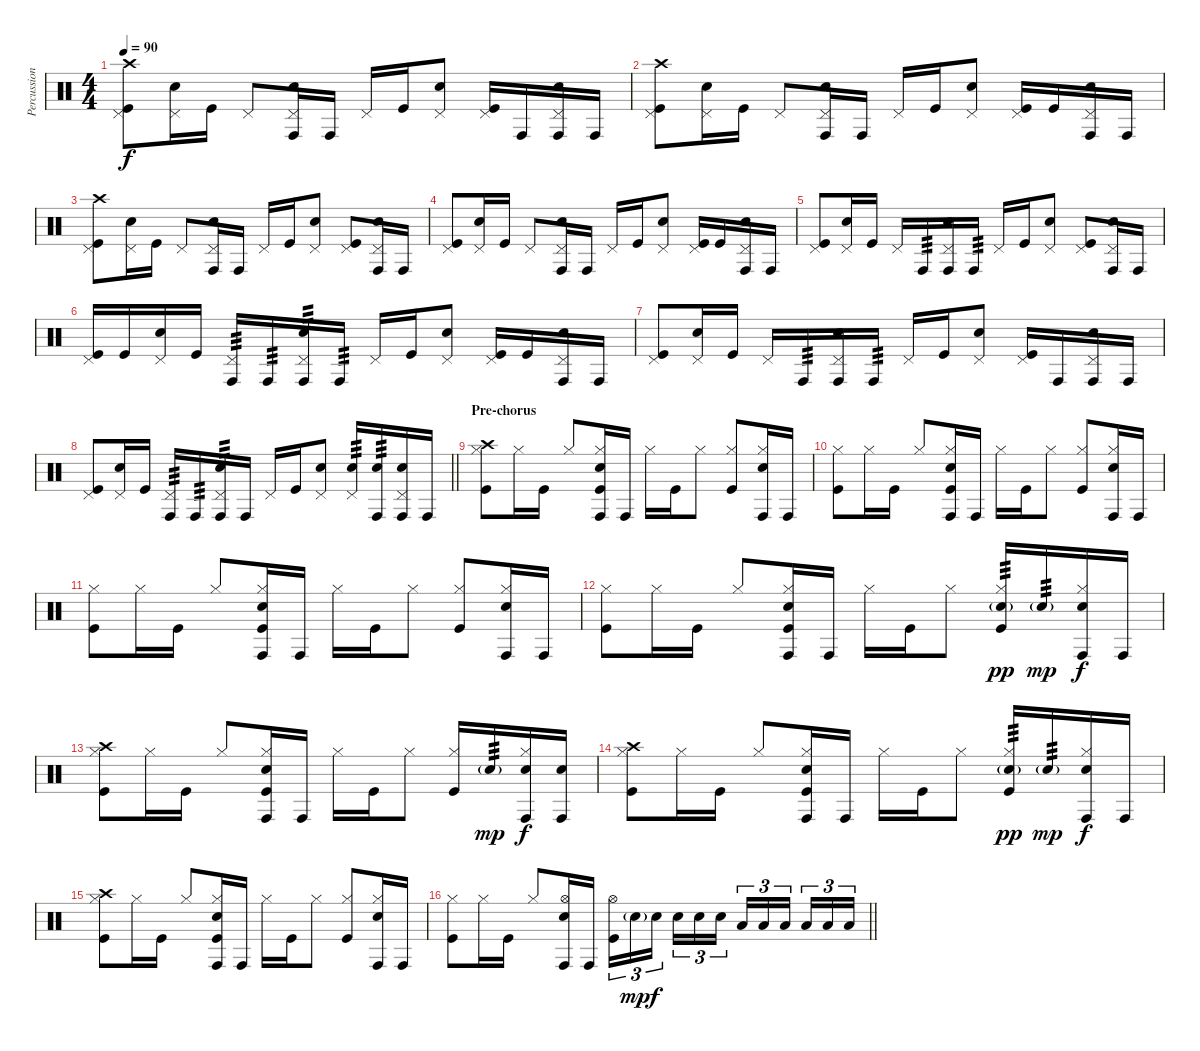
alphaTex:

\track ("Percussion" "Percussion") {instrument percussion}
\staff {score}
\articulation defaults
\ts (4 4)
\tempo 90
\clef neutral
\ks c
("Crash high (hit)" "Pedal Hi-Hat (hit)" "Kick (hit)").8{dy f} ("Pedal Hi-Hat (hit)" "Snare (hit) 2").16 "Kick (hit)".16 "Pedal Hi-Hat (hit)".8 ("Pedal Hi-Hat (hit)" "Snare (hit) 2" "Conga high (hit)").16 "Conga high (hit)".16 "Pedal Hi-Hat (hit)".16 "Kick (hit)".16 ("Pedal Hi-Hat (hit)" "Snare (hit) 2").8 ("Pedal Hi-Hat (hit)" "Kick (hit)").16 "Conga high (hit)".16 ("Pedal Hi-Hat (hit)" "Snare (hit) 2" "Conga high (hit)").16 "Conga high (hit)".16 |
("Crash high (hit)" "Pedal Hi-Hat (hit)" "Kick (hit)").8 ("Pedal Hi-Hat (hit)" "Snare (hit) 2").16 "Kick (hit)".16 "Pedal Hi-Hat (hit)".8 ("Pedal Hi-Hat (hit)" "Snare (hit) 2" "Conga high (hit)").16 "Conga high (hit)".16 "Pedal Hi-Hat (hit)".16 "Kick (hit)".16 ("Pedal Hi-Hat (hit)" "Snare (hit) 2").8 ("Pedal Hi-Hat (hit)" "Kick (hit)").16 "Kick (hit)".16 ("Pedal Hi-Hat (hit)" "Snare (hit) 2" "Conga high (hit)").16 "Conga high (hit)".16 |
("Crash high (hit)" "Pedal Hi-Hat (hit)" "Kick (hit)").8 ("Pedal Hi-Hat (hit)" "Snare (hit) 2").16 "Kick (hit)".16 "Pedal Hi-Hat (hit)".8 ("Pedal Hi-Hat (hit)" "Snare (hit) 2" "Conga high (hit)").16 "Conga high (hit)".16 "Pedal Hi-Hat (hit)".16 "Kick (hit)".16 ("Pedal Hi-Hat (hit)" "Snare (hit) 2").8 ("Pedal Hi-Hat (hit)" "Kick (hit)").8 ("Pedal Hi-Hat (hit)" "Snare (hit) 2" "Conga high (hit)").16 "Conga high (hit)".16 |
("Pedal Hi-Hat (hit)" "Kick (hit)").8 ("Pedal Hi-Hat (hit)" "Snare (hit) 2").16 "Kick (hit)".16 "Pedal Hi-Hat (hit)".8 ("Pedal Hi-Hat (hit)" "Snare (hit) 2" "Conga high (hit)").16 "Conga high (hit)".16 "Pedal Hi-Hat (hit)".16 "Kick (hit)".16 ("Pedal Hi-Hat (hit)" "Snare (hit) 2").8 ("Pedal Hi-Hat (hit)" "Kick (hit)").16 "Kick (hit)".16 ("Pedal Hi-Hat (hit)" "Snare (hit) 2" "Conga high (hit)").16 "Conga high (hit)".16 |
("Pedal Hi-Hat (hit)" "Kick (hit)").8 ("Pedal Hi-Hat (hit)" "Snare (hit) 2").16 "Kick (hit)".16 "Pedal Hi-Hat (hit)".16 "Conga high (hit)".16{tp 3} ("Pedal Hi-Hat (hit)" "Snare (hit) 2" "Conga high (hit)").16 "Conga high (hit)".16{tp 3} "Pedal Hi-Hat (hit)".16 "Kick (hit)".16 ("Pedal Hi-Hat (hit)" "Snare (hit) 2").8 ("Pedal Hi-Hat (hit)" "Kick (hit)").8 ("Pedal Hi-Hat (hit)" "Snare (hit) 2" "Conga high (hit)").16 "Conga high (hit)".16 |
("Pedal Hi-Hat (hit)" "Kick (hit)").16 "Kick (hit)".16 ("Pedal Hi-Hat (hit)" "Snare (hit) 2").16 "Kick (hit)".16 ("Pedal Hi-Hat (hit)" "Conga high (hit)").16{tp 3} "Conga high (hit)".16{tp 3} ("Pedal Hi-Hat (hit)" "Snare (hit) 2" "Conga high (hit)").16{tp 3} "Conga high (hit)".16{tp 3} "Pedal Hi-Hat (hit)".16 "Kick (hit)".16 ("Pedal Hi-Hat (hit)" "Snare (hit) 2").8 ("Pedal Hi-Hat (hit)" "Kick (hit)").16 "Kick (hit)".16 ("Pedal Hi-Hat (hit)" "Snare (hit) 2" "Conga high (hit)").16 "Conga high (hit)".16 |
("Pedal Hi-Hat (hit)" "Kick (hit)").8 ("Pedal Hi-Hat (hit)" "Snare (hit) 2").16 "Kick (hit)".16 "Pedal Hi-Hat (hit)".16 "Conga high (hit)".16{tp 3} ("Pedal Hi-Hat (hit)" "Snare (hit) 2" "Conga high (hit)").16 "Conga high (hit)".16{tp 3} "Pedal Hi-Hat (hit)".16 "Kick (hit)".16 ("Pedal Hi-Hat (hit)" "Snare (hit) 2").8 ("Pedal Hi-Hat (hit)" "Kick (hit)").16 "Conga high (hit)".16 ("Pedal Hi-Hat (hit)" "Snare (hit) 2" "Conga high (hit)").16 "Conga high (hit)".16 |
\barLineRight lightlight
("Pedal Hi-Hat (hit)" "Kick (hit)").8 ("Pedal Hi-Hat (hit)" "Snare (hit) 2").16 "Kick (hit)".16 ("Pedal Hi-Hat (hit)" "Conga high (hit)").16{tp 3} "Conga high (hit)".16{tp 3} ("Pedal Hi-Hat (hit)" "Snare (hit) 2" "Conga high (hit)").16{tp 3} "Conga high (hit)".16 "Pedal Hi-Hat (hit)".16 "Kick (hit)".16 ("Pedal Hi-Hat (hit)" "Snare (hit) 2").8 ("Pedal Hi-Hat (hit)" "Snare (hit) 2").16{tp 3} ("Snare (hit) 2" "Conga high (hit)").16{tp 3} ("Pedal Hi-Hat (hit)" "Snare (hit) 2" "Conga high (hit)").16 "Conga high (hit)".16 |
\section ("" "Pre-chorus")
("Crash high (hit)" "Hi-Hat (closed)" "Kick (hit)").8 "Hi-Hat (closed)".16 "Kick (hit)".16 "Hi-Hat (closed)".8 ("Hi-Hat (closed)" "Snare (hit) 2" "Conga high (hit)" "Kick (hit)").16 "Conga high (hit)".16 "Hi-Hat (closed)".16 "Kick (hit)".16 "Hi-Hat (closed)".8 ("Hi-Hat (closed)" "Kick (hit)").8 ("Hi-Hat (closed)" "Snare (hit) 2" "Conga high (hit)").16 "Conga high (hit)".16 |
("Hi-Hat (closed)" "Kick (hit)").8 "Hi-Hat (closed)".16 "Kick (hit)".16 "Hi-Hat (closed)".8 ("Hi-Hat (closed)" "Snare (hit) 2" "Conga high (hit)" "Kick (hit)").16 "Conga high (hit)".16 "Hi-Hat (closed)".16 "Kick (hit)".16 "Hi-Hat (closed)".8 ("Hi-Hat (closed)" "Kick (hit)").8 ("Hi-Hat (closed)" "Snare (hit) 2" "Conga high (hit)").16 "Conga high (hit)".16 |
("Hi-Hat (closed)" "Kick (hit)").8 "Hi-Hat (closed)".16 "Kick (hit)".16 "Hi-Hat (closed)".8 ("Hi-Hat (closed)" "Snare (hit) 2" "Conga high (hit)" "Kick (hit)").16 "Conga high (hit)".16 "Hi-Hat (closed)".16 "Kick (hit)".16 "Hi-Hat (closed)".8 ("Hi-Hat (closed)" "Kick (hit)").8 ("Hi-Hat (closed)" "Snare (hit) 2" "Conga high (hit)").16 "Conga high (hit)".16 |
("Hi-Hat (closed)" "Kick (hit)").8 "Hi-Hat (closed)".16 "Kick (hit)".16 "Hi-Hat (closed)".8 ("Hi-Hat (closed)" "Snare (hit) 2" "Conga high (hit)" "Kick (hit)").16 "Conga high (hit)".16 "Hi-Hat (closed)".16 "Kick (hit)".16 "Hi-Hat (closed)".8 ("Hi-Hat (closed)" "Snare (hit) 2"{g} "Kick (hit)").16{tp 3 dy pp} "Snare (hit) 2"{g}.16{tp 3 dy mp} ("Hi-Hat (closed)" "Snare (hit) 2" "Conga high (hit)").16{dy f} "Conga high (hit)".16 |
("Crash high (hit)" "Hi-Hat (closed)" "Kick (hit)").8 "Hi-Hat (closed)".16 "Kick (hit)".16 "Hi-Hat (closed)".8 ("Hi-Hat (closed)" "Snare (hit) 2" "Conga high (hit)" "Kick (hit)").16 "Conga high (hit)".16 "Hi-Hat (closed)".16 "Kick (hit)".16 "Hi-Hat (closed)".8 ("Hi-Hat (closed)" "Kick (hit)").16 "Snare (hit) 2"{g}.16{tp 3 dy mp} ("Hi-Hat (closed)" "Snare (hit) 2" "Conga high (hit)").16{dy f} ("Snare (hit) 2" "Conga high (hit)").16 |
("Crash high (hit)" "Hi-Hat (closed)" "Kick (hit)").8 "Hi-Hat (closed)".16 "Kick (hit)".16 "Hi-Hat (closed)".8 ("Hi-Hat (closed)" "Snare (hit) 2" "Conga high (hit)" "Kick (hit)").16 "Conga high (hit)".16 "Hi-Hat (closed)".16 "Kick (hit)".16 "Hi-Hat (closed)".8 ("Hi-Hat (closed)" "Snare (hit) 2"{g} "Kick (hit)").16{tp 3 dy pp} "Snare (hit) 2"{g}.16{tp 3 dy mp} ("Hi-Hat (closed)" "Snare (hit) 2" "Conga high (hit)").16{dy f} "Conga high (hit)".16 |
("Crash high (hit)" "Hi-Hat (closed)" "Kick (hit)").8 "Hi-Hat (closed)".16 "Kick (hit)".16 "Hi-Hat (closed)".8 ("Hi-Hat (closed)" "Snare (hit) 2" "Conga high (hit)" "Kick (hit)").16 "Conga high (hit)".16 "Hi-Hat (closed)".16 "Kick (hit)".16 "Hi-Hat (closed)".8 ("Hi-Hat (closed)" "Kick (hit)").8 ("Hi-Hat (closed)" "Snare (hit) 2" "Conga high (hit)").16 "Conga high (hit)".16 |
\barLineRight lightlight
("Hi-Hat (closed)" "Kick (hit)").8 "Hi-Hat (closed)".16 "Kick (hit)".16 "Hi-Hat (closed)".8 ("Hi-Hat (open)" "Snare (hit) 2" "Conga high (hit)").16 "Conga high (hit)".16 ("Hi-Hat (open)" "Kick (hit)").16{tu (3 2)} "Snare (hit) 2"{g}.16{tu (3 2) dy mp} "Snare (hit) 2".16{tu (3 2) dy f beam splitsecondary} "Snare (hit) 2".16{tu (3 2)} "Snare (hit) 2".16{tu (3 2)} "Snare (hit) 2".16{tu (3 2)} "Low Floor Tom (hit)".16{tu (3 2)} "Low Floor Tom (hit)".16{tu (3 2)} "Low Floor Tom (hit)".16{tu (3 2) beam splitsecondary} "Low Floor Tom (hit)".16{tu (3 2)} "Low Floor Tom (hit)".16{tu (3 2)} "Low Floor Tom (hit)".16{tu (3 2)}
